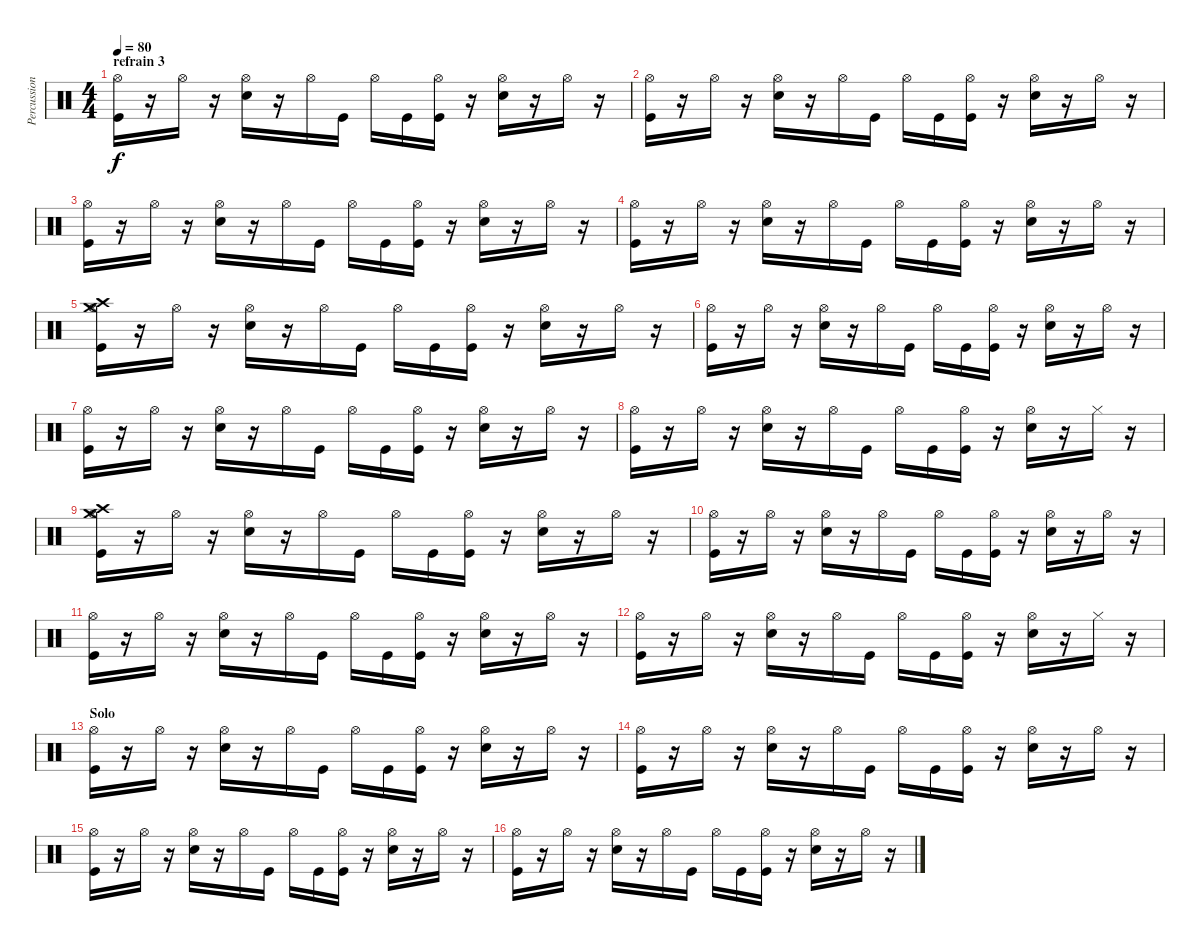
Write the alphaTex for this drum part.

\track ("Percussions" "Percussion") {instrument percussion}
\staff {score}
\articulation defaults
\ts (4 4)
\section ("" "refrain 3")
\tempo 80
\clef neutral
\ks c
("Hi-Hat (open)" "Kick (hit)").16{dy f} r.16 "Hi-Hat (open)".16 r.16 ("Hi-Hat (open)" "Electric Snare (hit)").16 r.16 "Hi-Hat (open)".16 "Kick (hit)".16 "Hi-Hat (open)".16 "Kick (hit)".16 ("Hi-Hat (open)" "Kick (hit)").16 r.16 ("Hi-Hat (open)" "Electric Snare (hit)").16 r.16 "Hi-Hat (open)".16 r.16 |
("Hi-Hat (open)" "Kick (hit)").16 r.16 "Hi-Hat (open)".16 r.16 ("Hi-Hat (open)" "Electric Snare (hit)").16 r.16 "Hi-Hat (open)".16 "Kick (hit)".16 "Hi-Hat (open)".16 "Kick (hit)".16 ("Hi-Hat (open)" "Kick (hit)").16 r.16 ("Hi-Hat (open)" "Electric Snare (hit)").16 r.16 "Hi-Hat (open)".16 r.16 |
("Hi-Hat (open)" "Kick (hit)").16 r.16 "Hi-Hat (open)".16 r.16 ("Hi-Hat (open)" "Electric Snare (hit)").16 r.16 "Hi-Hat (open)".16 "Kick (hit)".16 "Hi-Hat (open)".16 "Kick (hit)".16 ("Hi-Hat (open)" "Kick (hit)").16 r.16 ("Hi-Hat (open)" "Electric Snare (hit)").16 r.16 "Hi-Hat (open)".16 r.16 |
("Hi-Hat (open)" "Kick (hit)").16 r.16 "Hi-Hat (open)".16 r.16 ("Hi-Hat (open)" "Electric Snare (hit)").16 r.16 "Hi-Hat (open)".16 "Kick (hit)".16 "Hi-Hat (open)".16 "Kick (hit)".16 ("Hi-Hat (open)" "Kick (hit)").16 r.16 ("Hi-Hat (open)" "Electric Snare (hit)").16 r.16 "Hi-Hat (open)".16 r.16 |
("Hi-Hat (open)" "Crash high (hit)" "Crash medium (hit)" "Kick (hit)").16 r.16 "Hi-Hat (open)".16 r.16 ("Hi-Hat (open)" "Electric Snare (hit)").16 r.16 "Hi-Hat (open)".16 "Kick (hit)".16 "Hi-Hat (open)".16 "Kick (hit)".16 ("Hi-Hat (open)" "Kick (hit)").16 r.16 ("Hi-Hat (open)" "Electric Snare (hit)").16 r.16 "Hi-Hat (open)".16 r.16 |
("Hi-Hat (open)" "Kick (hit)").16 r.16 "Hi-Hat (open)".16 r.16 ("Hi-Hat (open)" "Electric Snare (hit)").16 r.16 "Hi-Hat (open)".16 "Kick (hit)".16 "Hi-Hat (open)".16 "Kick (hit)".16 ("Hi-Hat (open)" "Kick (hit)").16 r.16 ("Hi-Hat (open)" "Electric Snare (hit)").16 r.16 "Hi-Hat (open)".16 r.16 |
("Hi-Hat (open)" "Kick (hit)").16 r.16 "Hi-Hat (open)".16 r.16 ("Hi-Hat (open)" "Electric Snare (hit)").16 r.16 "Hi-Hat (open)".16 "Kick (hit)".16 "Hi-Hat (open)".16 "Kick (hit)".16 ("Hi-Hat (open)" "Kick (hit)").16 r.16 ("Hi-Hat (open)" "Electric Snare (hit)").16 r.16 "Hi-Hat (open)".16 r.16 |
("Hi-Hat (open)" "Kick (hit)").16 r.16 "Hi-Hat (open)".16 r.16 ("Hi-Hat (open)" "Electric Snare (hit)").16 r.16 "Hi-Hat (open)".16 "Kick (hit)".16 "Hi-Hat (open)".16 "Kick (hit)".16 ("Hi-Hat (open)" "Kick (hit)").16 r.16 ("Hi-Hat (open)" "Electric Snare (hit)").16 r.16 "Hi-Hat (closed)".16 r.16 |
("Hi-Hat (open)" "Crash high (hit)" "Crash medium (hit)" "Kick (hit)").16 r.16 "Hi-Hat (open)".16 r.16 ("Hi-Hat (open)" "Electric Snare (hit)").16 r.16 "Hi-Hat (open)".16 "Kick (hit)".16 "Hi-Hat (open)".16 "Kick (hit)".16 ("Hi-Hat (open)" "Kick (hit)").16 r.16 ("Hi-Hat (open)" "Electric Snare (hit)").16 r.16 "Hi-Hat (open)".16 r.16 |
("Hi-Hat (open)" "Kick (hit)").16 r.16 "Hi-Hat (open)".16 r.16 ("Hi-Hat (open)" "Electric Snare (hit)").16 r.16 "Hi-Hat (open)".16 "Kick (hit)".16 "Hi-Hat (open)".16 "Kick (hit)".16 ("Hi-Hat (open)" "Kick (hit)").16 r.16 ("Hi-Hat (open)" "Electric Snare (hit)").16 r.16 "Hi-Hat (open)".16 r.16 |
("Hi-Hat (open)" "Kick (hit)").16 r.16 "Hi-Hat (open)".16 r.16 ("Hi-Hat (open)" "Electric Snare (hit)").16 r.16 "Hi-Hat (open)".16 "Kick (hit)".16 "Hi-Hat (open)".16 "Kick (hit)".16 ("Hi-Hat (open)" "Kick (hit)").16 r.16 ("Hi-Hat (open)" "Electric Snare (hit)").16 r.16 "Hi-Hat (open)".16 r.16 |
("Hi-Hat (open)" "Kick (hit)").16 r.16 "Hi-Hat (open)".16 r.16 ("Hi-Hat (open)" "Electric Snare (hit)").16 r.16 "Hi-Hat (open)".16 "Kick (hit)".16 "Hi-Hat (open)".16 "Kick (hit)".16 ("Hi-Hat (open)" "Kick (hit)").16 r.16 ("Hi-Hat (open)" "Electric Snare (hit)").16 r.16 "Hi-Hat (closed)".16 r.16 |
\section ("" "Solo")
("Hi-Hat (open)" "Kick (hit)").16 r.16 "Hi-Hat (open)".16 r.16 ("Hi-Hat (open)" "Electric Snare (hit)").16 r.16 "Hi-Hat (open)".16 "Kick (hit)".16 "Hi-Hat (open)".16 "Kick (hit)".16 ("Hi-Hat (open)" "Kick (hit)").16 r.16 ("Hi-Hat (open)" "Electric Snare (hit)").16 r.16 "Hi-Hat (open)".16 r.16 |
("Hi-Hat (open)" "Kick (hit)").16 r.16 "Hi-Hat (open)".16 r.16 ("Hi-Hat (open)" "Electric Snare (hit)").16 r.16 "Hi-Hat (open)".16 "Kick (hit)".16 "Hi-Hat (open)".16 "Kick (hit)".16 ("Hi-Hat (open)" "Kick (hit)").16 r.16 ("Hi-Hat (open)" "Electric Snare (hit)").16 r.16 "Hi-Hat (open)".16 r.16 |
("Hi-Hat (open)" "Kick (hit)").16 r.16 "Hi-Hat (open)".16 r.16 ("Hi-Hat (open)" "Electric Snare (hit)").16 r.16 "Hi-Hat (open)".16 "Kick (hit)".16 "Hi-Hat (open)".16 "Kick (hit)".16 ("Hi-Hat (open)" "Kick (hit)").16 r.16 ("Hi-Hat (open)" "Electric Snare (hit)").16 r.16 "Hi-Hat (open)".16 r.16 |
("Hi-Hat (open)" "Kick (hit)").16 r.16 "Hi-Hat (open)".16 r.16 ("Hi-Hat (open)" "Electric Snare (hit)").16 r.16 "Hi-Hat (open)".16 "Kick (hit)".16 "Hi-Hat (open)".16 "Kick (hit)".16 ("Hi-Hat (open)" "Kick (hit)").16 r.16 ("Hi-Hat (open)" "Electric Snare (hit)").16 r.16 "Hi-Hat (open)".16 r.16
